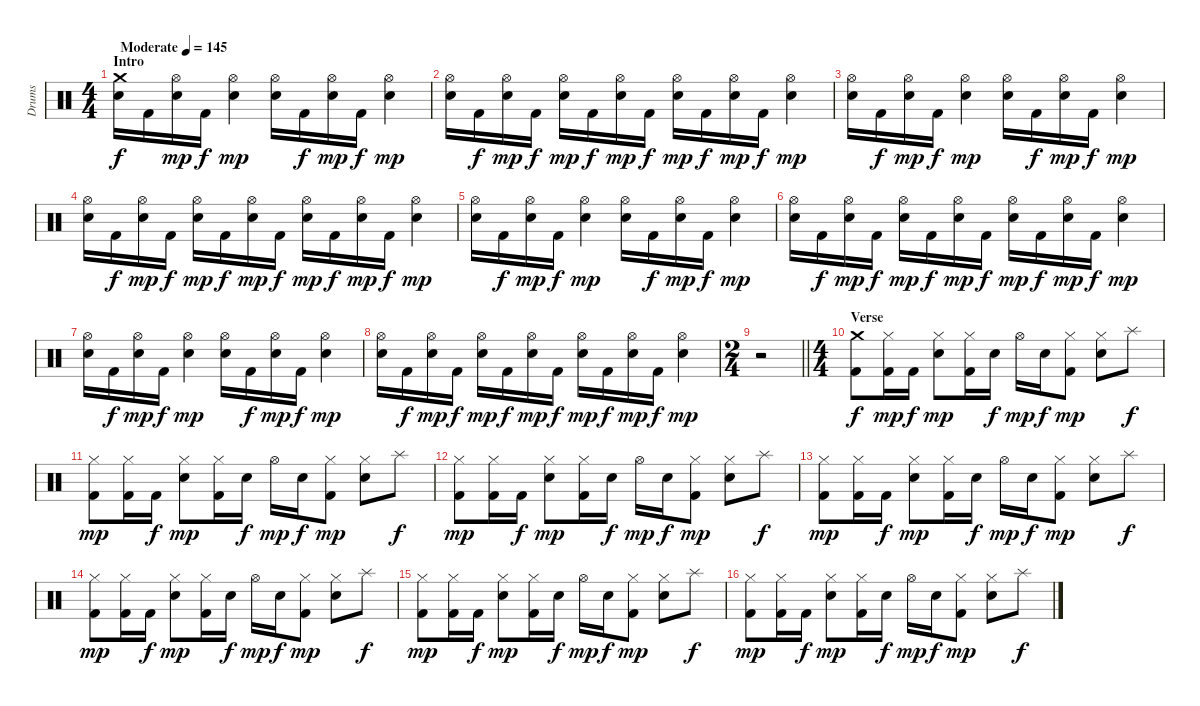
\track ("Drums" "Drums") {instrument percussion}
\staff {score}
\articulation defaults
\ts (4 4)
\section ("" "Intro")
\tempo (145 "Moderate")
\clef neutral
\ks c
("Crash medium (hit)" "Snare (hit) 2").16{dy f} "Kick (hit) 2".16 ("Hi-Hat (open)" "Snare (hit) 2").16{dy mp} "Kick (hit) 2".16{dy f} ("Hi-Hat (open)" "Snare (hit) 2").4{dy mp} ("Hi-Hat (open)" "Snare (hit) 2").16 "Kick (hit) 2".16{dy f} ("Hi-Hat (open)" "Snare (hit) 2").16{dy mp} "Kick (hit) 2".16{dy f} ("Hi-Hat (open)" "Snare (hit) 2").4{dy mp} |
("Hi-Hat (open)" "Snare (hit) 2").16 "Kick (hit) 2".16{dy f} ("Hi-Hat (open)" "Snare (hit) 2").16{dy mp} "Kick (hit) 2".16{dy f} ("Hi-Hat (open)" "Snare (hit) 2").16{dy mp} "Kick (hit) 2".16{dy f} ("Hi-Hat (open)" "Snare (hit) 2").16{dy mp} "Kick (hit) 2".16{dy f} ("Hi-Hat (open)" "Snare (hit) 2").16{dy mp} "Kick (hit) 2".16{dy f} ("Hi-Hat (open)" "Snare (hit) 2").16{dy mp} "Kick (hit) 2".16{dy f} ("Hi-Hat (open)" "Snare (hit) 2").4{dy mp} |
("Hi-Hat (open)" "Snare (hit) 2").16 "Kick (hit) 2".16{dy f} ("Hi-Hat (open)" "Snare (hit) 2").16{dy mp} "Kick (hit) 2".16{dy f} ("Hi-Hat (open)" "Snare (hit) 2").4{dy mp} ("Hi-Hat (open)" "Snare (hit) 2").16 "Kick (hit) 2".16{dy f} ("Hi-Hat (open)" "Snare (hit) 2").16{dy mp} "Kick (hit) 2".16{dy f} ("Hi-Hat (open)" "Snare (hit) 2").4{dy mp} |
("Hi-Hat (open)" "Snare (hit) 2").16 "Kick (hit) 2".16{dy f} ("Hi-Hat (open)" "Snare (hit) 2").16{dy mp} "Kick (hit) 2".16{dy f} ("Hi-Hat (open)" "Snare (hit) 2").16{dy mp} "Kick (hit) 2".16{dy f} ("Hi-Hat (open)" "Snare (hit) 2").16{dy mp} "Kick (hit) 2".16{dy f} ("Hi-Hat (open)" "Snare (hit) 2").16{dy mp} "Kick (hit) 2".16{dy f} ("Hi-Hat (open)" "Snare (hit) 2").16{dy mp} "Kick (hit) 2".16{dy f} ("Hi-Hat (open)" "Snare (hit) 2").4{dy mp} |
("Hi-Hat (open)" "Snare (hit) 2").16 "Kick (hit) 2".16{dy f} ("Hi-Hat (open)" "Snare (hit) 2").16{dy mp} "Kick (hit) 2".16{dy f} ("Hi-Hat (open)" "Snare (hit) 2").4{dy mp} ("Hi-Hat (open)" "Snare (hit) 2").16 "Kick (hit) 2".16{dy f} ("Hi-Hat (open)" "Snare (hit) 2").16{dy mp} "Kick (hit) 2".16{dy f} ("Hi-Hat (open)" "Snare (hit) 2").4{dy mp} |
("Hi-Hat (open)" "Snare (hit) 2").16 "Kick (hit) 2".16{dy f} ("Hi-Hat (open)" "Snare (hit) 2").16{dy mp} "Kick (hit) 2".16{dy f} ("Hi-Hat (open)" "Snare (hit) 2").16{dy mp} "Kick (hit) 2".16{dy f} ("Hi-Hat (open)" "Snare (hit) 2").16{dy mp} "Kick (hit) 2".16{dy f} ("Hi-Hat (open)" "Snare (hit) 2").16{dy mp} "Kick (hit) 2".16{dy f} ("Hi-Hat (open)" "Snare (hit) 2").16{dy mp} "Kick (hit) 2".16{dy f} ("Hi-Hat (open)" "Snare (hit) 2").4{dy mp} |
("Hi-Hat (open)" "Snare (hit) 2").16 "Kick (hit) 2".16{dy f} ("Hi-Hat (open)" "Snare (hit) 2").16{dy mp} "Kick (hit) 2".16{dy f} ("Hi-Hat (open)" "Snare (hit) 2").4{dy mp} ("Hi-Hat (open)" "Snare (hit) 2").16 "Kick (hit) 2".16{dy f} ("Hi-Hat (open)" "Snare (hit) 2").16{dy mp} "Kick (hit) 2".16{dy f} ("Hi-Hat (open)" "Snare (hit) 2").4{dy mp} |
("Hi-Hat (open)" "Snare (hit) 2").16 "Kick (hit) 2".16{dy f} ("Hi-Hat (open)" "Snare (hit) 2").16{dy mp} "Kick (hit) 2".16{dy f} ("Hi-Hat (open)" "Snare (hit) 2").16{dy mp} "Kick (hit) 2".16{dy f} ("Hi-Hat (open)" "Snare (hit) 2").16{dy mp} "Kick (hit) 2".16{dy f} ("Hi-Hat (open)" "Snare (hit) 2").16{dy mp} "Kick (hit) 2".16{dy f} ("Hi-Hat (open)" "Snare (hit) 2").16{dy mp} "Kick (hit) 2".16{dy f} ("Hi-Hat (open)" "Snare (hit) 2").4{dy mp} |
\ts (2 4)
\barLineRight lightlight
r.2 |
\ts (4 4)
\section ("" "Verse")
("Crash medium (hit)" "Kick (hit) 2").8{dy f volume 15} ("Hi-Hat (closed)" "Kick (hit) 2").16{dy mp} "Kick (hit) 2".16{dy f} ("Hi-Hat (closed)" "Snare (hit) 2").8{dy mp} ("Hi-Hat (closed)" "Kick (hit) 2").16 "Snare (hit) 2".16{dy f} "Hi-Hat (open)".16{dy mp} "Snare (hit) 2".16{dy f} ("Hi-Hat (closed)" "Kick (hit) 2").8{dy mp} ("Hi-Hat (closed)" "Snare (hit) 2").8 "Splash (hit)".8{dy f} |
("Hi-Hat (closed)" "Kick (hit) 2").8{dy mp} ("Hi-Hat (closed)" "Kick (hit) 2").16 "Kick (hit) 2".16{dy f} ("Hi-Hat (closed)" "Snare (hit) 2").8{dy mp} ("Hi-Hat (closed)" "Kick (hit) 2").16 "Snare (hit) 2".16{dy f} "Hi-Hat (open)".16{dy mp} "Snare (hit) 2".16{dy f} ("Hi-Hat (closed)" "Kick (hit) 2").8{dy mp} ("Hi-Hat (closed)" "Snare (hit) 2").8 "Splash (hit)".8{dy f} |
("Hi-Hat (closed)" "Kick (hit) 2").8{dy mp} ("Hi-Hat (closed)" "Kick (hit) 2").16 "Kick (hit) 2".16{dy f} ("Hi-Hat (closed)" "Snare (hit) 2").8{dy mp} ("Hi-Hat (closed)" "Kick (hit) 2").16 "Snare (hit) 2".16{dy f} "Hi-Hat (open)".16{dy mp} "Snare (hit) 2".16{dy f} ("Hi-Hat (closed)" "Kick (hit) 2").8{dy mp} ("Hi-Hat (closed)" "Snare (hit) 2").8 "Splash (hit)".8{dy f} |
("Hi-Hat (closed)" "Kick (hit) 2").8{dy mp} ("Hi-Hat (closed)" "Kick (hit) 2").16 "Kick (hit) 2".16{dy f} ("Hi-Hat (closed)" "Snare (hit) 2").8{dy mp} ("Hi-Hat (closed)" "Kick (hit) 2").16 "Snare (hit) 2".16{dy f} "Hi-Hat (open)".16{dy mp} "Snare (hit) 2".16{dy f} ("Hi-Hat (closed)" "Kick (hit) 2").8{dy mp} ("Hi-Hat (closed)" "Snare (hit) 2").8 "Splash (hit)".8{dy f} |
("Hi-Hat (closed)" "Kick (hit) 2").8{dy mp} ("Hi-Hat (closed)" "Kick (hit) 2").16 "Kick (hit) 2".16{dy f} ("Hi-Hat (closed)" "Snare (hit) 2").8{dy mp} ("Hi-Hat (closed)" "Kick (hit) 2").16 "Snare (hit) 2".16{dy f} "Hi-Hat (open)".16{dy mp} "Snare (hit) 2".16{dy f} ("Hi-Hat (closed)" "Kick (hit) 2").8{dy mp} ("Hi-Hat (closed)" "Snare (hit) 2").8 "Splash (hit)".8{dy f} |
("Hi-Hat (closed)" "Kick (hit) 2").8{dy mp} ("Hi-Hat (closed)" "Kick (hit) 2").16 "Kick (hit) 2".16{dy f} ("Hi-Hat (closed)" "Snare (hit) 2").8{dy mp} ("Hi-Hat (closed)" "Kick (hit) 2").16 "Snare (hit) 2".16{dy f} "Hi-Hat (open)".16{dy mp} "Snare (hit) 2".16{dy f} ("Hi-Hat (closed)" "Kick (hit) 2").8{dy mp} ("Hi-Hat (closed)" "Snare (hit) 2").8 "Splash (hit)".8{dy f} |
("Hi-Hat (closed)" "Kick (hit) 2").8{dy mp} ("Hi-Hat (closed)" "Kick (hit) 2").16 "Kick (hit) 2".16{dy f} ("Hi-Hat (closed)" "Snare (hit) 2").8{dy mp} ("Hi-Hat (closed)" "Kick (hit) 2").16 "Snare (hit) 2".16{dy f} "Hi-Hat (open)".16{dy mp} "Snare (hit) 2".16{dy f} ("Hi-Hat (closed)" "Kick (hit) 2").8{dy mp} ("Hi-Hat (closed)" "Snare (hit) 2").8 "Splash (hit)".8{dy f}
